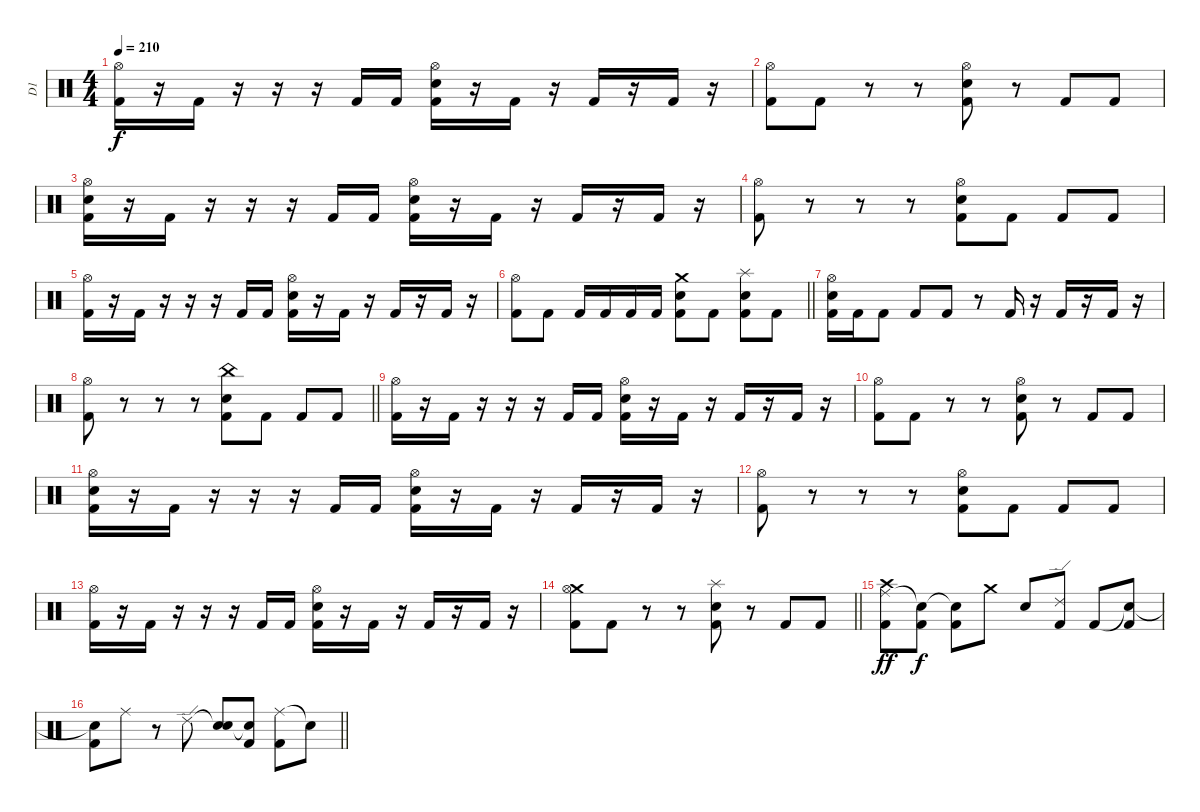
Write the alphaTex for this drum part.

\track ("D1" "D1") {instrument percussion}
\staff {score}
\articulation defaults
\ts (4 4)
\tempo 210
\clef neutral
\ks c
("Hi-Hat (open)" "Kick (hit) 2").16{dy f} r.16 "Kick (hit) 2".16 r.16 r.16 r.16 "Kick (hit) 2".16 "Kick (hit) 2".16 ("Snare (hit) 2" "Kick (hit) 2" "Hi-Hat (open)").16 r.16 "Kick (hit) 2".16 r.16 "Kick (hit) 2".16 r.16 "Kick (hit) 2".16 r.16 |
("Hi-Hat (open)" "Kick (hit) 2").8 "Kick (hit) 2".8 r.8 r.8 ("Snare (hit) 2" "Kick (hit) 2" "Hi-Hat (open)").8 r.8 "Kick (hit) 2".8 "Kick (hit) 2".8 |
("Hi-Hat (open)" "Kick (hit) 2" "Snare (hit) 2").16 r.16 "Kick (hit) 2".16 r.16 r.16 r.16 "Kick (hit) 2".16 "Kick (hit) 2".16 ("Snare (hit) 2" "Kick (hit) 2" "Hi-Hat (open)").16 r.16 "Kick (hit) 2".16 r.16 "Kick (hit) 2".16 r.16 "Kick (hit) 2".16 r.16 |
("Hi-Hat (open)" "Kick (hit) 2").8 r.8 r.8 r.8 ("Snare (hit) 2" "Kick (hit) 2" "Hi-Hat (open)").8 "Kick (hit) 2".8 "Kick (hit) 2".8 "Kick (hit) 2".8 |
("Hi-Hat (open)" "Kick (hit) 2").16 r.16 "Kick (hit) 2".16 r.16 r.16 r.16 "Kick (hit) 2".16 "Kick (hit) 2".16 ("Snare (hit) 2" "Kick (hit) 2" "Hi-Hat (open)").16 r.16 "Kick (hit) 2".16 r.16 "Kick (hit) 2".16 r.16 "Kick (hit) 2".16 r.16 |
\barLineRight lightlight
("Hi-Hat (open)" "Kick (hit) 2").8 "Kick (hit) 2".8 "Kick (hit) 2".16 "Kick (hit) 2".16 "Kick (hit) 2".16 "Kick (hit) 2".16 ("Crash medium (hit)" "Snare (hit) 2" "Kick (hit) 2").8 "Kick (hit) 2".8 ("Splash (hit)" "Snare (hit) 2" "Kick (hit) 2").8 "Kick (hit) 2".8 |
\section ("" "")
("Kick (hit) 2" "Snare (hit) 2" "Hi-Hat (open)").16 "Kick (hit) 2".16 "Kick (hit) 2".8 "Kick (hit) 2".8 "Kick (hit) 2".8 r.8 "Kick (hit) 2".16 r.16 "Kick (hit) 2".16 r.16 "Kick (hit) 2".16 r.16 |
\barLineRight lightlight
("Hi-Hat (open)" "Kick (hit) 2").8 r.8 r.8 r.8 ("Snare (hit) 2" "China (hit)" "Kick (hit) 2").8 "Kick (hit) 2".8 "Kick (hit) 2".8 "Kick (hit) 2".8 |
("Hi-Hat (open)" "Kick (hit) 2").16 r.16 "Kick (hit) 2".16 r.16 r.16 r.16 "Kick (hit) 2".16 "Kick (hit) 2".16 ("Snare (hit) 2" "Kick (hit) 2" "Hi-Hat (open)").16 r.16 "Kick (hit) 2".16 r.16 "Kick (hit) 2".16 r.16 "Kick (hit) 2".16 r.16 |
("Hi-Hat (open)" "Kick (hit) 2").8 "Kick (hit) 2".8 r.8 r.8 ("Snare (hit) 2" "Kick (hit) 2" "Hi-Hat (open)").8 r.8 "Kick (hit) 2".8 "Kick (hit) 2".8 |
("Hi-Hat (open)" "Kick (hit) 2" "Snare (hit) 2").16 r.16 "Kick (hit) 2".16 r.16 r.16 r.16 "Kick (hit) 2".16 "Kick (hit) 2".16 ("Snare (hit) 2" "Kick (hit) 2" "Hi-Hat (open)").16 r.16 "Kick (hit) 2".16 r.16 "Kick (hit) 2".16 r.16 "Kick (hit) 2".16 r.16 |
("Hi-Hat (open)" "Kick (hit) 2").8 r.8 r.8 r.8 ("Snare (hit) 2" "Kick (hit) 2" "Hi-Hat (open)").8 "Kick (hit) 2".8 "Kick (hit) 2".8 "Kick (hit) 2".8 |
("Hi-Hat (open)" "Kick (hit) 2").16 r.16 "Kick (hit) 2".16 r.16 r.16 r.16 "Kick (hit) 2".16 "Kick (hit) 2".16 ("Snare (hit) 2" "Kick (hit) 2" "Hi-Hat (open)").16 r.16 "Kick (hit) 2".16 r.16 "Kick (hit) 2".16 r.16 "Kick (hit) 2".16 r.16 |
\barLineRight lightlight
("Crash medium (hit)" "Hi-Hat (open)" "Kick (hit) 2").8 "Kick (hit) 2".8 r.8 r.8 ("Splash (hit)" "Snare (hit) 2" "Kick (hit) 2").8 r.8 "Kick (hit) 2".8 "Kick (hit) 2".8 |
\section ("" "")
("Ride (middle)" "Crash high (hit)" "Kick (hit) 2").8{dy ff} ("Snare (hit)"{t} "Kick (hit) 2").8{dy f} ("Snare (hit)"{t} "Kick (hit) 2").8 "Crash medium (hit)".8 "Snare (hit) 2".8 ("Ride (edge) 2" "Kick (hit) 2").8 "Kick (hit) 2".8 ("Snare (hit)"{t} "Kick (hit) 2").8 |
\barLineRight lightlight
("Snare (hit)"{t} "Kick (hit) 2").8 "Ride (middle)".8 r.8 "Ride (edge) 2".8 ("Snare (hit)"{t} "Snare (hit) 2").8 ("Snare (hit)"{t} "Kick (hit) 2").8 ("Ride (middle)" "Kick (hit) 2").8 "Snare (hit)"{t}.8
